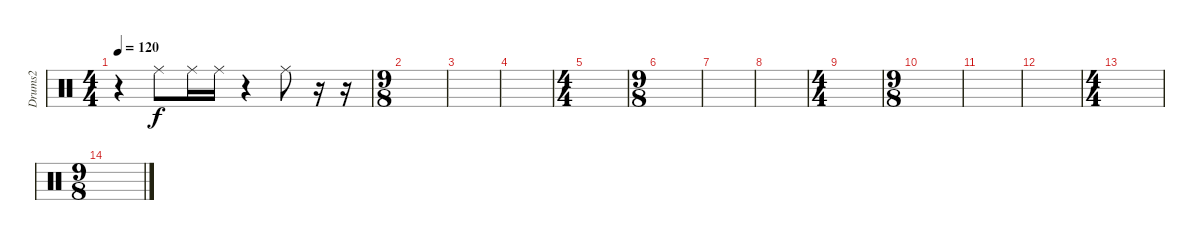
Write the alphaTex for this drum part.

\track ("Drums2" "Drums2") {instrument percussion}
\staff {score}
\articulation defaults
\ts (4 4)
\tempo 120
\clef neutral
\ks c
r.4{dy f} "Ride (middle)".8 "Ride (middle)".16 "Ride (middle)".16 r.4 "Ride (middle)".8 r.16 r.16 |
\ts (9 8)
|
|
|
\ts (4 4)
|
\ts (9 8)
|
|
|
\ts (4 4)
|
\ts (9 8)
|
|
|
\ts (4 4)
|
\ts (9 8)
